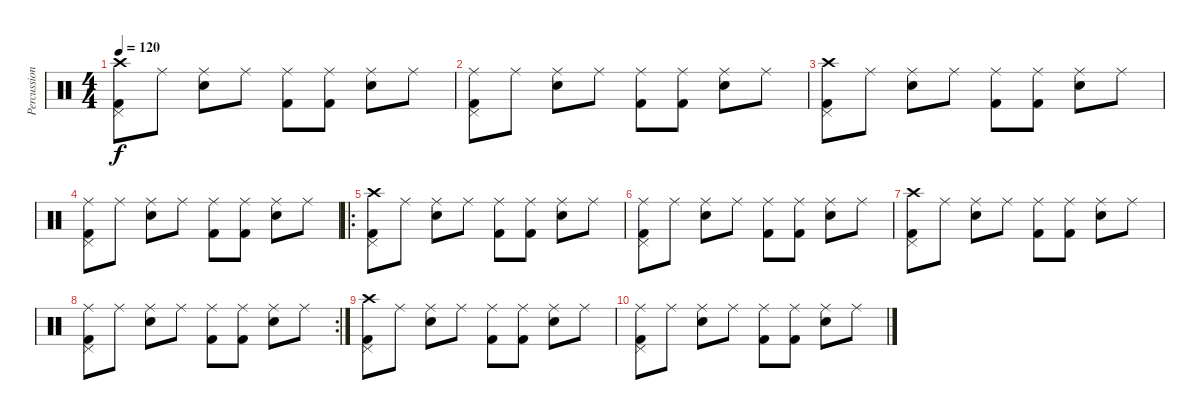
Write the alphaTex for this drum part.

\track ("Percussion" "Percussion") {instrument percussion}
\staff {score}
\articulation defaults
\ts (4 4)
\tempo 120
\clef neutral
\ks c
("Kick (hit) 2" "Pedal Hi-Hat (hit)" "Crash high (hit)").8{dy f} "Ride (middle)".8 ("Electric Snare (hit)" "Ride (middle)").8 "Ride (middle)".8 ("Kick (hit) 2" "Ride (middle)").8 ("Kick (hit) 2" "Ride (middle)").8 ("Electric Snare (hit)" "Ride (middle)").8 "Ride (middle)".8 |
("Kick (hit) 2" "Pedal Hi-Hat (hit)" "Ride (middle)").8 "Ride (middle)".8 ("Electric Snare (hit)" "Ride (middle)").8 "Ride (middle)".8 ("Kick (hit) 2" "Ride (middle)").8 ("Kick (hit) 2" "Ride (middle)").8 ("Electric Snare (hit)" "Ride (middle)").8 "Ride (middle)".8 |
("Kick (hit) 2" "Pedal Hi-Hat (hit)" "Crash high (hit)").8 "Ride (middle)".8 ("Electric Snare (hit)" "Ride (middle)").8 "Ride (middle)".8 ("Kick (hit) 2" "Ride (middle)").8 ("Kick (hit) 2" "Ride (middle)").8 ("Electric Snare (hit)" "Ride (middle)").8 "Ride (middle)".8 |
("Kick (hit) 2" "Pedal Hi-Hat (hit)" "Ride (middle)").8 "Ride (middle)".8 ("Electric Snare (hit)" "Ride (middle)").8 "Ride (middle)".8 ("Kick (hit) 2" "Ride (middle)").8 ("Kick (hit) 2" "Ride (middle)").8 ("Electric Snare (hit)" "Ride (middle)").8 "Ride (middle)".8 |
\ro
("Kick (hit) 2" "Pedal Hi-Hat (hit)" "Crash high (hit)").8 "Ride (middle)".8 ("Electric Snare (hit)" "Ride (middle)").8 "Ride (middle)".8 ("Kick (hit) 2" "Ride (middle)").8 ("Kick (hit) 2" "Ride (middle)").8 ("Electric Snare (hit)" "Ride (middle)").8 "Ride (middle)".8 |
("Kick (hit) 2" "Pedal Hi-Hat (hit)" "Ride (middle)").8 "Ride (middle)".8 ("Electric Snare (hit)" "Ride (middle)").8 "Ride (middle)".8 ("Kick (hit) 2" "Ride (middle)").8 ("Kick (hit) 2" "Ride (middle)").8 ("Electric Snare (hit)" "Ride (middle)").8 "Ride (middle)".8 |
("Kick (hit) 2" "Pedal Hi-Hat (hit)" "Crash high (hit)").8 "Ride (middle)".8 ("Electric Snare (hit)" "Ride (middle)").8 "Ride (middle)".8 ("Kick (hit) 2" "Ride (middle)").8 ("Kick (hit) 2" "Ride (middle)").8 ("Electric Snare (hit)" "Ride (middle)").8 "Ride (middle)".8 |
\rc 2
("Kick (hit) 2" "Pedal Hi-Hat (hit)" "Ride (middle)").8 "Ride (middle)".8 ("Electric Snare (hit)" "Ride (middle)").8 "Ride (middle)".8 ("Kick (hit) 2" "Ride (middle)").8 ("Kick (hit) 2" "Ride (middle)").8 ("Electric Snare (hit)" "Ride (middle)").8 "Ride (middle)".8 |
("Kick (hit) 2" "Pedal Hi-Hat (hit)" "Crash high (hit)").8 "Ride (middle)".8 ("Electric Snare (hit)" "Ride (middle)").8 "Ride (middle)".8 ("Kick (hit) 2" "Ride (middle)").8 ("Kick (hit) 2" "Ride (middle)").8 ("Electric Snare (hit)" "Ride (middle)").8 "Ride (middle)".8 |
("Kick (hit) 2" "Pedal Hi-Hat (hit)" "Ride (middle)").8 "Ride (middle)".8 ("Electric Snare (hit)" "Ride (middle)").8 "Ride (middle)".8 ("Kick (hit) 2" "Ride (middle)").8 ("Kick (hit) 2" "Ride (middle)").8 ("Electric Snare (hit)" "Ride (middle)").8 "Ride (middle)".8
